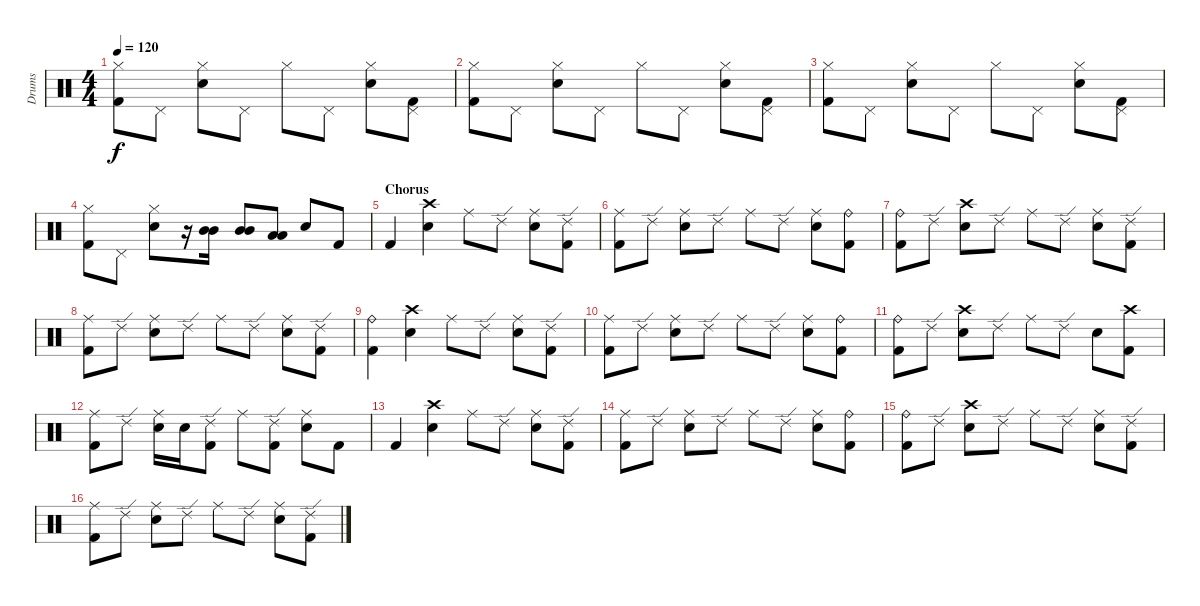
\track ("Drums" "Drums") {instrument percussion}
\staff {score}
\articulation defaults
\ts (4 4)
\tempo 120
\clef neutral
\ks c
("Kick (hit) 2" "Hi-Hat (closed)").8{dy f} "Pedal Hi-Hat (hit)".8 ("Electric Snare (hit)" "Hi-Hat (closed)").8 "Pedal Hi-Hat (hit)".8 "Hi-Hat (closed)".8 "Pedal Hi-Hat (hit)".8 ("Electric Snare (hit)" "Hi-Hat (closed)").8 ("Kick (hit) 2" "Pedal Hi-Hat (hit)").8 |
("Kick (hit) 2" "Hi-Hat (closed)").8 "Pedal Hi-Hat (hit)".8 ("Electric Snare (hit)" "Hi-Hat (closed)").8 "Pedal Hi-Hat (hit)".8 "Hi-Hat (closed)".8 "Pedal Hi-Hat (hit)".8 ("Electric Snare (hit)" "Hi-Hat (closed)").8 ("Kick (hit) 2" "Pedal Hi-Hat (hit)").8 |
("Kick (hit) 2" "Hi-Hat (closed)").8 "Pedal Hi-Hat (hit)".8 ("Electric Snare (hit)" "Hi-Hat (closed)").8 "Pedal Hi-Hat (hit)".8 "Hi-Hat (closed)".8 "Pedal Hi-Hat (hit)".8 ("Electric Snare (hit)" "Hi-Hat (closed)").8 ("Kick (hit) 2" "Pedal Hi-Hat (hit)").8 |
("Kick (hit) 2" "Hi-Hat (closed)").8 "Pedal Hi-Hat (hit)".8 ("Electric Snare (hit)" "Hi-Hat (closed)").8 r.16 ("Mid Tom (hit)" "Mid Tom (hit)").16 ("Mid Tom (hit)" "Mid Tom (hit)").8 ("Low Tom (hit)" "Low Tom (hit)").8 "Electric Snare (hit)".8 "Kick (hit) 2".8 |
\section ("" "Chorus")
"Kick (hit) 2".4 ("Electric Snare (hit)" "Crash high (hit)").4 "Ride (middle)".8 "Ride (edge) 2".8 ("Electric Snare (hit)" "Ride (middle)").8 ("Kick (hit) 2" "Ride (edge) 2").8 |
("Kick (hit) 2" "Ride (middle)").8 "Ride (edge) 2".8 ("Electric Snare (hit)" "Ride (middle)").8 "Ride (edge) 2".8 "Ride (middle)".8 "Ride (edge) 2".8 ("Electric Snare (hit)" "Ride (middle)").8 ("Kick (hit) 2" "Ride (bell)").8 |
("Kick (hit) 2" "Ride (bell)").8 "Ride (edge) 2".8 ("Electric Snare (hit)" "Crash high (hit)").8 "Ride (edge) 2".8 "Ride (middle)".8 "Ride (edge) 2".8 ("Electric Snare (hit)" "Ride (middle)").8 ("Kick (hit) 2" "Ride (edge) 2").8 |
("Kick (hit) 2" "Ride (middle)").8 "Ride (edge) 2".8 ("Electric Snare (hit)" "Ride (middle)").8 "Ride (edge) 2".8 "Ride (middle)".8 "Ride (edge) 2".8 ("Electric Snare (hit)" "Ride (middle)").8 ("Kick (hit) 2" "Ride (edge) 2").8 |
("Kick (hit) 2" "Ride (bell)").4 ("Electric Snare (hit)" "Crash high (hit)").4 "Ride (middle)".8 "Ride (edge) 2".8 ("Electric Snare (hit)" "Ride (middle)").8 ("Kick (hit) 2" "Ride (edge) 2").8 |
("Kick (hit) 2" "Ride (middle)").8 "Ride (edge) 2".8 ("Electric Snare (hit)" "Ride (middle)").8 "Ride (edge) 2".8 "Ride (middle)".8 "Ride (edge) 2".8 ("Electric Snare (hit)" "Ride (middle)").8 ("Kick (hit) 2" "Ride (bell)").8 |
("Kick (hit) 2" "Ride (bell)").8 "Ride (edge) 2".8 ("Electric Snare (hit)" "Crash high (hit)").8 "Ride (edge) 2".8 "Ride (middle)".8 "Ride (edge) 2".8 "Electric Snare (hit)".8 ("Kick (hit) 2" "Crash high (hit)").8 |
("Kick (hit) 2" "Ride (middle)").8 "Ride (edge) 2".8 ("Electric Snare (hit)" "Ride (middle)").16 "Snare (hit) 2".16 ("Kick (hit) 2" "Ride (edge) 2").8 "Ride (middle)".8 ("Kick (hit) 2" "Ride (edge) 2").8 ("Electric Snare (hit)" "Ride (middle)").8 "Kick (hit) 2".8 |
"Kick (hit) 2".4 ("Electric Snare (hit)" "Crash high (hit)").4 "Ride (middle)".8 "Ride (edge) 2".8 ("Electric Snare (hit)" "Ride (middle)").8 ("Kick (hit) 2" "Ride (edge) 2").8 |
("Kick (hit) 2" "Ride (middle)").8 "Ride (edge) 2".8 ("Electric Snare (hit)" "Ride (middle)").8 "Ride (edge) 2".8 "Ride (middle)".8 "Ride (edge) 2".8 ("Electric Snare (hit)" "Ride (middle)").8 ("Kick (hit) 2" "Ride (bell)").8 |
("Kick (hit) 2" "Ride (bell)").8 "Ride (edge) 2".8 ("Electric Snare (hit)" "Crash high (hit)").8 "Ride (edge) 2".8 "Ride (middle)".8 "Ride (edge) 2".8 ("Electric Snare (hit)" "Ride (middle)").8 ("Kick (hit) 2" "Ride (edge) 2").8 |
("Kick (hit) 2" "Ride (middle)").8 "Ride (edge) 2".8 ("Electric Snare (hit)" "Ride (middle)").8 "Ride (edge) 2".8 "Ride (middle)".8 "Ride (edge) 2".8 ("Electric Snare (hit)" "Ride (middle)").8 ("Kick (hit) 2" "Ride (edge) 2").8
